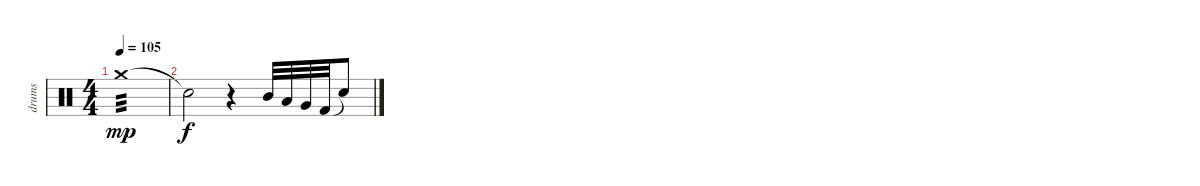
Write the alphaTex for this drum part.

\track ("drums" "drums") {instrument percussion}
\staff {score}
\articulation defaults
\ts (4 4)
\tempo 105
\clef neutral
\ks c "Crash medium (hit)".1{tp 3 dy mp}
|
"Snare (hit)"{t}.2{dy f} r.4 "Mid Tom (hit)".32 "Low Tom (hit)".32 "Very Low Tom (hit)".32 "Kick (hit) 2".32 "Snare (hit)"{t}.8
